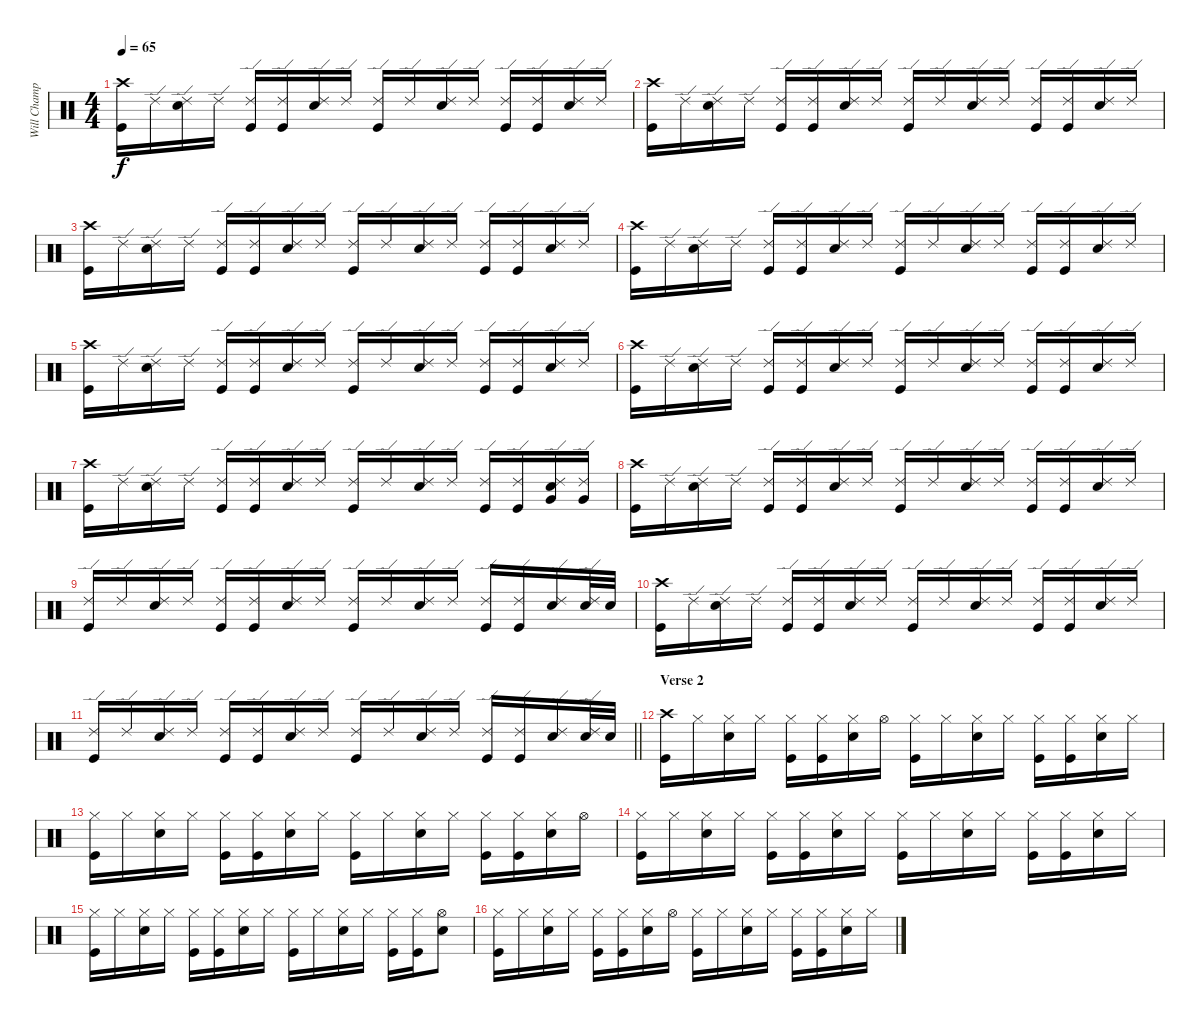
\track ("Will Champion-Drums" "Will Champ") {instrument percussion}
\staff {score}
\articulation defaults
\ts (4 4)
\tempo 65
\clef neutral
\ks c
("Crash high (hit)" "Kick (hit)").16{dy f} "Ride (edge) 2".16 ("Ride (edge) 2" "Snare (hit) 2").16 "Ride (edge) 2".16 ("Ride (edge) 2" "Kick (hit)").16 ("Ride (edge) 2" "Kick (hit)").16 ("Ride (edge) 2" "Snare (hit) 2").16 "Ride (edge) 2".16 ("Ride (edge) 2" "Kick (hit)").16 "Ride (edge) 2".16 ("Ride (edge) 2" "Snare (hit) 2").16 "Ride (edge) 2".16 ("Ride (edge) 2" "Kick (hit)").16 ("Ride (edge) 2" "Kick (hit)").16 ("Ride (edge) 2" "Snare (hit) 2").16 "Ride (edge) 2".16 |
("Crash high (hit)" "Kick (hit)").16 "Ride (edge) 2".16 ("Ride (edge) 2" "Snare (hit) 2").16 "Ride (edge) 2".16 ("Ride (edge) 2" "Kick (hit)").16 ("Ride (edge) 2" "Kick (hit)").16 ("Ride (edge) 2" "Snare (hit) 2").16 "Ride (edge) 2".16 ("Ride (edge) 2" "Kick (hit)").16 "Ride (edge) 2".16 ("Ride (edge) 2" "Snare (hit) 2").16 "Ride (edge) 2".16 ("Ride (edge) 2" "Kick (hit)").16 ("Ride (edge) 2" "Kick (hit)").16 ("Ride (edge) 2" "Snare (hit) 2").16 "Ride (edge) 2".16 |
("Crash high (hit)" "Kick (hit)").16 "Ride (edge) 2".16 ("Ride (edge) 2" "Snare (hit) 2").16 "Ride (edge) 2".16 ("Ride (edge) 2" "Kick (hit)").16 ("Ride (edge) 2" "Kick (hit)").16 ("Ride (edge) 2" "Snare (hit) 2").16 "Ride (edge) 2".16 ("Ride (edge) 2" "Kick (hit)").16 "Ride (edge) 2".16 ("Ride (edge) 2" "Snare (hit) 2").16 "Ride (edge) 2".16 ("Ride (edge) 2" "Kick (hit)").16 ("Ride (edge) 2" "Kick (hit)").16 ("Ride (edge) 2" "Snare (hit) 2").16 "Ride (edge) 2".16 |
("Crash high (hit)" "Kick (hit)").16 "Ride (edge) 2".16 ("Ride (edge) 2" "Snare (hit) 2").16 "Ride (edge) 2".16 ("Ride (edge) 2" "Kick (hit)").16 ("Ride (edge) 2" "Kick (hit)").16 ("Ride (edge) 2" "Snare (hit) 2").16 "Ride (edge) 2".16 ("Ride (edge) 2" "Kick (hit)").16 "Ride (edge) 2".16 ("Ride (edge) 2" "Snare (hit) 2").16 "Ride (edge) 2".16 ("Ride (edge) 2" "Kick (hit)").16 ("Ride (edge) 2" "Kick (hit)").16 ("Ride (edge) 2" "Snare (hit) 2").16 "Ride (edge) 2".16 |
("Crash high (hit)" "Kick (hit)").16 "Ride (edge) 2".16 ("Ride (edge) 2" "Snare (hit) 2").16 "Ride (edge) 2".16 ("Ride (edge) 2" "Kick (hit)").16 ("Ride (edge) 2" "Kick (hit)").16 ("Ride (edge) 2" "Snare (hit) 2").16 "Ride (edge) 2".16 ("Ride (edge) 2" "Kick (hit)").16 "Ride (edge) 2".16 ("Ride (edge) 2" "Snare (hit) 2").16 "Ride (edge) 2".16 ("Ride (edge) 2" "Kick (hit)").16 ("Ride (edge) 2" "Kick (hit)").16 ("Ride (edge) 2" "Snare (hit) 2").16 "Ride (edge) 2".16 |
("Crash high (hit)" "Kick (hit)").16 "Ride (edge) 2".16 ("Ride (edge) 2" "Snare (hit) 2").16 "Ride (edge) 2".16 ("Ride (edge) 2" "Kick (hit)").16 ("Ride (edge) 2" "Kick (hit)").16 ("Ride (edge) 2" "Snare (hit) 2").16 "Ride (edge) 2".16 ("Ride (edge) 2" "Kick (hit)").16 "Ride (edge) 2".16 ("Ride (edge) 2" "Snare (hit) 2").16 "Ride (edge) 2".16 ("Ride (edge) 2" "Kick (hit)").16 ("Ride (edge) 2" "Kick (hit)").16 ("Ride (edge) 2" "Snare (hit) 2").16 "Ride (edge) 2".16 |
("Crash high (hit)" "Kick (hit)").16 "Ride (edge) 2".16 ("Ride (edge) 2" "Snare (hit) 2").16 "Ride (edge) 2".16 ("Ride (edge) 2" "Kick (hit)").16 ("Ride (edge) 2" "Kick (hit)").16 ("Ride (edge) 2" "Snare (hit) 2").16 "Ride (edge) 2".16 ("Ride (edge) 2" "Kick (hit)").16 "Ride (edge) 2".16 ("Ride (edge) 2" "Snare (hit) 2").16 "Ride (edge) 2".16 ("Ride (edge) 2" "Kick (hit)").16 ("Ride (edge) 2" "Kick (hit)").16 ("Ride (edge) 2" "Snare (hit) 2" "Very Low Tom (hit)").16 ("Ride (edge) 2" "Very Low Tom (hit)").16 |
("Crash high (hit)" "Kick (hit)").16 "Ride (edge) 2".16 ("Ride (edge) 2" "Snare (hit) 2").16 "Ride (edge) 2".16 ("Ride (edge) 2" "Kick (hit)").16 ("Ride (edge) 2" "Kick (hit)").16 ("Ride (edge) 2" "Snare (hit) 2").16 "Ride (edge) 2".16 ("Ride (edge) 2" "Kick (hit)").16 "Ride (edge) 2".16 ("Ride (edge) 2" "Snare (hit) 2").16 "Ride (edge) 2".16 ("Ride (edge) 2" "Kick (hit)").16 ("Ride (edge) 2" "Kick (hit)").16 ("Ride (edge) 2" "Snare (hit) 2").16 "Ride (edge) 2".16 |
("Ride (edge) 2" "Kick (hit)").16 "Ride (edge) 2".16 ("Ride (edge) 2" "Snare (hit) 2").16 "Ride (edge) 2".16 ("Ride (edge) 2" "Kick (hit)").16 ("Ride (edge) 2" "Kick (hit)").16 ("Ride (edge) 2" "Snare (hit) 2").16 "Ride (edge) 2".16 ("Ride (edge) 2" "Kick (hit)").16 "Ride (edge) 2".16 ("Ride (edge) 2" "Snare (hit) 2").16 "Ride (edge) 2".16 ("Ride (edge) 2" "Kick (hit)").16 ("Ride (edge) 2" "Kick (hit)").16 ("Ride (edge) 2" "Snare (hit) 2").16 ("Ride (edge) 2" "Snare (hit) 2").32 "Snare (hit) 2".32 |
("Crash high (hit)" "Kick (hit)").16 "Ride (edge) 2".16 ("Ride (edge) 2" "Snare (hit) 2").16 "Ride (edge) 2".16 ("Ride (edge) 2" "Kick (hit)").16 ("Ride (edge) 2" "Kick (hit)").16 ("Ride (edge) 2" "Snare (hit) 2").16 "Ride (edge) 2".16 ("Ride (edge) 2" "Kick (hit)").16 "Ride (edge) 2".16 ("Ride (edge) 2" "Snare (hit) 2").16 "Ride (edge) 2".16 ("Ride (edge) 2" "Kick (hit)").16 ("Ride (edge) 2" "Kick (hit)").16 ("Ride (edge) 2" "Snare (hit) 2").16 "Ride (edge) 2".16 |
\barLineRight lightlight
("Ride (edge) 2" "Kick (hit)").16 "Ride (edge) 2".16 ("Ride (edge) 2" "Snare (hit) 2").16 "Ride (edge) 2".16 ("Ride (edge) 2" "Kick (hit)").16 ("Ride (edge) 2" "Kick (hit)").16 ("Ride (edge) 2" "Snare (hit) 2").16 "Ride (edge) 2".16 ("Ride (edge) 2" "Kick (hit)").16 "Ride (edge) 2".16 ("Ride (edge) 2" "Snare (hit) 2").16 "Ride (edge) 2".16 ("Ride (edge) 2" "Kick (hit)").16 ("Ride (edge) 2" "Kick (hit)").16 ("Ride (edge) 2" "Snare (hit) 2").16 ("Ride (edge) 2" "Snare (hit) 2").32 "Snare (hit) 2".32 |
\section ("" "Verse 2")
("Crash high (hit)" "Kick (hit)").16 "Hi-Hat (closed)".16 ("Hi-Hat (closed)" "Snare (hit) 2").16 "Hi-Hat (closed)".16 ("Hi-Hat (closed)" "Kick (hit)").16 ("Hi-Hat (closed)" "Kick (hit)").16 ("Hi-Hat (closed)" "Snare (hit) 2").16 "Hi-Hat (open)".16 ("Hi-Hat (closed)" "Kick (hit)").16 "Hi-Hat (closed)".16 ("Hi-Hat (closed)" "Snare (hit) 2").16 "Hi-Hat (closed)".16 ("Hi-Hat (closed)" "Kick (hit)").16 ("Hi-Hat (closed)" "Kick (hit)").16 ("Hi-Hat (closed)" "Snare (hit) 2").16 "Hi-Hat (closed)".16 |
("Hi-Hat (closed)" "Kick (hit)").16 "Hi-Hat (closed)".16 ("Hi-Hat (closed)" "Snare (hit) 2").16 "Hi-Hat (closed)".16 ("Hi-Hat (closed)" "Kick (hit)").16 ("Hi-Hat (closed)" "Kick (hit)").16 ("Hi-Hat (closed)" "Snare (hit) 2").16 "Hi-Hat (closed)".16 ("Hi-Hat (closed)" "Kick (hit)").16 "Hi-Hat (closed)".16 ("Hi-Hat (closed)" "Snare (hit) 2").16 "Hi-Hat (closed)".16 ("Hi-Hat (closed)" "Kick (hit)").16 ("Hi-Hat (closed)" "Kick (hit)").16 ("Hi-Hat (closed)" "Snare (hit) 2").16 "Hi-Hat (open)".16 |
("Hi-Hat (closed)" "Kick (hit)").16 "Hi-Hat (closed)".16 ("Hi-Hat (closed)" "Snare (hit) 2").16 "Hi-Hat (closed)".16 ("Hi-Hat (closed)" "Kick (hit)").16 ("Hi-Hat (closed)" "Kick (hit)").16 ("Hi-Hat (closed)" "Snare (hit) 2").16 "Hi-Hat (closed)".16 ("Hi-Hat (closed)" "Kick (hit)").16 "Hi-Hat (closed)".16 ("Hi-Hat (closed)" "Snare (hit) 2").16 "Hi-Hat (closed)".16 ("Hi-Hat (closed)" "Kick (hit)").16 ("Hi-Hat (closed)" "Kick (hit)").16 ("Hi-Hat (closed)" "Snare (hit) 2").16 "Hi-Hat (closed)".16 |
("Hi-Hat (closed)" "Kick (hit)").16 "Hi-Hat (closed)".16 ("Hi-Hat (closed)" "Snare (hit) 2").16 "Hi-Hat (closed)".16 ("Hi-Hat (closed)" "Kick (hit)").16 ("Hi-Hat (closed)" "Kick (hit)").16 ("Hi-Hat (closed)" "Snare (hit) 2").16 "Hi-Hat (closed)".16 ("Hi-Hat (closed)" "Kick (hit)").16 "Hi-Hat (closed)".16 ("Hi-Hat (closed)" "Snare (hit) 2").16 "Hi-Hat (closed)".16 ("Hi-Hat (closed)" "Kick (hit)").16 ("Hi-Hat (closed)" "Kick (hit)").16 ("Hi-Hat (open)" "Snare (hit) 2").8 |
("Hi-Hat (closed)" "Kick (hit)").16 "Hi-Hat (closed)".16 ("Hi-Hat (closed)" "Snare (hit) 2").16 "Hi-Hat (closed)".16 ("Hi-Hat (closed)" "Kick (hit)").16 ("Hi-Hat (closed)" "Kick (hit)").16 ("Hi-Hat (closed)" "Snare (hit) 2").16 "Hi-Hat (open)".16 ("Hi-Hat (closed)" "Kick (hit)").16 "Hi-Hat (closed)".16 ("Hi-Hat (closed)" "Snare (hit) 2").16 "Hi-Hat (closed)".16 ("Hi-Hat (closed)" "Kick (hit)").16 ("Hi-Hat (closed)" "Kick (hit)").16 ("Hi-Hat (closed)" "Snare (hit) 2").16 "Hi-Hat (closed)".16
